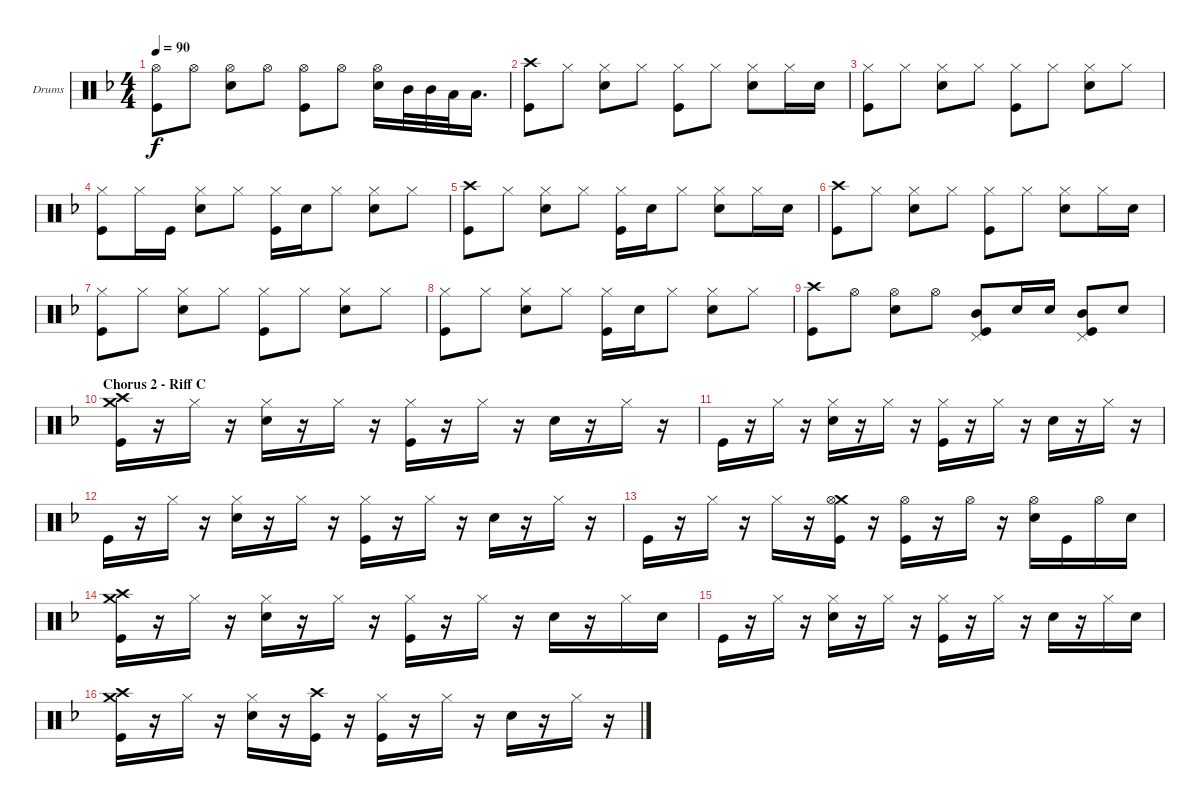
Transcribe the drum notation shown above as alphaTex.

\bracketExtendMode groupsimilarinstruments
\firstSystemTrackNameOrientation horizontal
\otherSystemsTrackNameOrientation horizontal
\track ("Drumkit" "Drums") {instrument percussion}
\staff {score}
\articulation defaults
\ts (4 4)
\tempo 90
\clef neutral
\ks dminor
("Hi-Hat (open)" "Kick (hit)").8{dy f} "Hi-Hat (open)".8 ("Hi-Hat (open)" "Snare (hit) 2").8 "Hi-Hat (open)".8 ("Hi-Hat (open)" "Kick (hit)").8 "Hi-Hat (open)".8 ("Hi-Hat (open)" "Snare (hit) 2").16 "Mid Tom (hit)".32 "Mid Tom (hit)".32 "Low Tom (hit)".32 "Low Tom (hit)".16{d} |
("Crash high (hit)" "Kick (hit)").8 "Hi-Hat (closed)".8 ("Hi-Hat (closed)" "Snare (hit) 2").8 "Hi-Hat (closed)".8 ("Hi-Hat (closed)" "Kick (hit)").8 "Hi-Hat (closed)".8 ("Hi-Hat (closed)" "Snare (hit) 2").8 "Hi-Hat (closed)".16 "Snare (hit) 2".16 |
("Hi-Hat (closed)" "Kick (hit)").8 "Hi-Hat (closed)".8 ("Hi-Hat (closed)" "Snare (hit) 2").8 "Hi-Hat (closed)".8 ("Hi-Hat (closed)" "Kick (hit)").8 "Hi-Hat (closed)".8 ("Hi-Hat (closed)" "Snare (hit) 2").8 "Hi-Hat (closed)".8 |
("Hi-Hat (closed)" "Kick (hit)").8 "Hi-Hat (closed)".16 "Kick (hit)".16 ("Hi-Hat (closed)" "Snare (hit) 2").8 "Hi-Hat (closed)".8 ("Hi-Hat (closed)" "Kick (hit)").16 "Snare (hit) 2".16 "Hi-Hat (closed)".8 ("Hi-Hat (closed)" "Snare (hit) 2").8 "Hi-Hat (closed)".8 |
("Crash high (hit)" "Kick (hit)").8 "Hi-Hat (closed)".8 ("Hi-Hat (closed)" "Snare (hit) 2").8 "Hi-Hat (closed)".8 ("Hi-Hat (closed)" "Kick (hit)").16 "Snare (hit) 2".16 "Hi-Hat (closed)".8 ("Hi-Hat (closed)" "Snare (hit) 2").8 "Hi-Hat (closed)".16 "Snare (hit) 2".16 |
("Crash high (hit)" "Kick (hit)").8 "Hi-Hat (closed)".8 ("Hi-Hat (closed)" "Snare (hit) 2").8 "Hi-Hat (closed)".8 ("Hi-Hat (closed)" "Kick (hit)").8 "Hi-Hat (closed)".8 ("Hi-Hat (closed)" "Snare (hit) 2").8 "Hi-Hat (closed)".16 "Snare (hit) 2".16 |
("Hi-Hat (closed)" "Kick (hit)").8 "Hi-Hat (closed)".8 ("Hi-Hat (closed)" "Snare (hit) 2").8 "Hi-Hat (closed)".8 ("Hi-Hat (closed)" "Kick (hit)").8 "Hi-Hat (closed)".8 ("Hi-Hat (closed)" "Snare (hit) 2").8 "Hi-Hat (closed)".8 |
("Hi-Hat (closed)" "Kick (hit)").8 "Hi-Hat (closed)".8 ("Hi-Hat (closed)" "Snare (hit) 2").8 "Hi-Hat (closed)".8 ("Hi-Hat (closed)" "Kick (hit)").16 "Snare (hit) 2".16 "Hi-Hat (closed)".8 ("Hi-Hat (closed)" "Snare (hit) 2").8 "Hi-Hat (closed)".8 |
("Crash high (hit)" "Kick (hit)").8 "Hi-Hat (open)".8 ("Hi-Hat (open)" "Snare (hit) 2").8 "Hi-Hat (open)".8 ("Pedal Hi-Hat (hit)" "Mid Tom (hit)" "Kick (hit)").8 "Snare (hit) 2".16 "Snare (hit) 2".16 ("Pedal Hi-Hat (hit)" "Mid Tom (hit)" "Kick (hit)").8 "Snare (hit) 2".8 |
\section ("" "Chorus 2 - Riff C")
("Crash high (hit)" "Crash medium (hit)" "Kick (hit)").16 r.16 "Hi-Hat (closed)".16 r.16 ("Hi-Hat (closed)" "Snare (hit) 2").16 r.16 "Hi-Hat (closed)".16 r.16 ("Hi-Hat (closed)" "Kick (hit)").16 r.16 "Hi-Hat (closed)".16 r.16 "Snare (hit) 2".16 r.16 "Hi-Hat (closed)".16 r.16 |
"Kick (hit)".16 r.16 "Hi-Hat (closed)".16 r.16 ("Hi-Hat (closed)" "Snare (hit) 2").16 r.16 "Hi-Hat (closed)".16 r.16 ("Hi-Hat (closed)" "Kick (hit)").16 r.16 "Hi-Hat (closed)".16 r.16 "Snare (hit) 2".16 r.16 "Hi-Hat (closed)".16 r.16 |
"Kick (hit)".16 r.16 "Hi-Hat (closed)".16 r.16 ("Hi-Hat (closed)" "Snare (hit) 2").16 r.16 "Hi-Hat (closed)".16 r.16 ("Hi-Hat (closed)" "Kick (hit)").16 r.16 "Hi-Hat (closed)".16 r.16 "Snare (hit) 2".16 r.16 "Hi-Hat (closed)".16 r.16 |
"Kick (hit)".16 r.16 "Hi-Hat (closed)".16 r.16 "Hi-Hat (closed)".16 r.16 ("Crash medium (hit)" "Hi-Hat (open)" "Kick (hit)").16 r.16 ("Hi-Hat (open)" "Kick (hit)").16 r.16 "Hi-Hat (open)".16 r.16 ("Hi-Hat (open)" "Snare (hit) 2").16 "Kick (hit)".16 "Hi-Hat (open)".16 "Snare (hit) 2".16 |
("Crash high (hit)" "Crash medium (hit)" "Kick (hit)").16 r.16 "Hi-Hat (closed)".16 r.16 ("Hi-Hat (closed)" "Snare (hit) 2").16 r.16 "Hi-Hat (closed)".16 r.16 ("Hi-Hat (closed)" "Kick (hit)").16 r.16 "Hi-Hat (closed)".16 r.16 "Snare (hit) 2".16 r.16 "Hi-Hat (closed)".16 "Snare (hit) 2".16 |
"Kick (hit)".16 r.16 "Hi-Hat (closed)".16 r.16 ("Hi-Hat (closed)" "Snare (hit) 2").16 r.16 "Hi-Hat (closed)".16 r.16 ("Hi-Hat (closed)" "Kick (hit)").16 r.16 "Hi-Hat (closed)".16 r.16 "Snare (hit) 2".16 r.16 "Hi-Hat (closed)".16 "Snare (hit) 2".16 |
("Crash high (hit)" "Crash medium (hit)" "Kick (hit)").16 r.16 "Hi-Hat (closed)".16 r.16 ("Hi-Hat (closed)" "Snare (hit) 2").16 r.16 ("Crash high (hit)" "Kick (hit)").16 r.16 ("Hi-Hat (closed)" "Kick (hit)").16 r.16 "Hi-Hat (closed)".16 r.16 "Snare (hit) 2".16 r.16 "Hi-Hat (closed)".16 r.16
